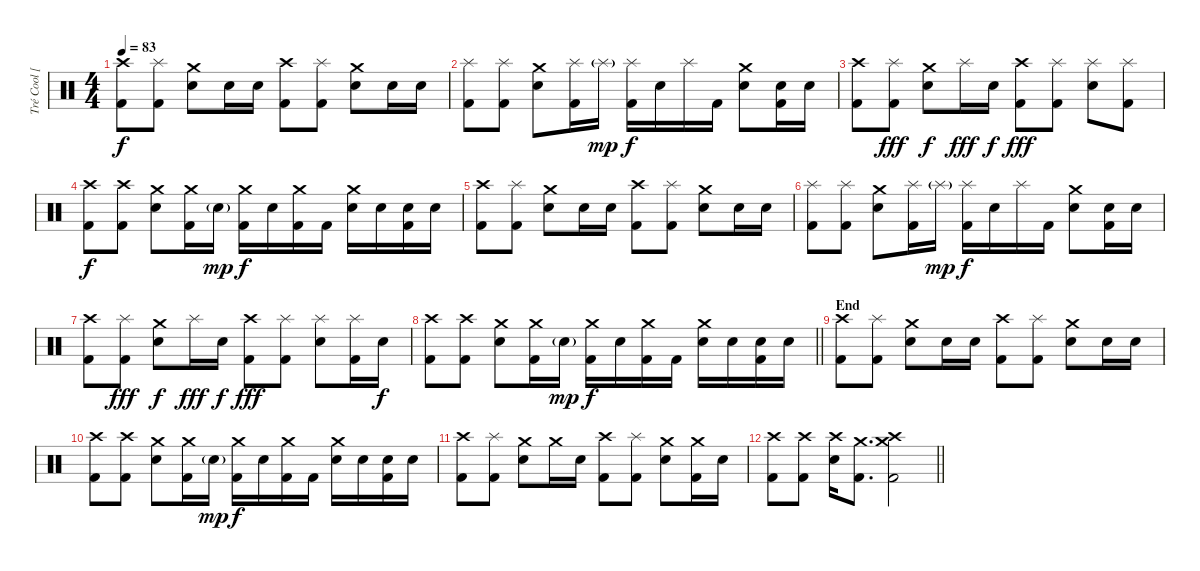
\track ("Tré Cool [Drums]" "Tré Cool [") {instrument percussion}
\staff {score}
\articulation defaults
\ts (4 4)
\tempo 83
\clef neutral
\ks c
("Crash high (hit)" "Kick (hit) 2").8{dy f} ("Splash (hit)" "Kick (hit) 2").8 ("Crash medium (hit)" "Electric Snare (hit)").8 "Electric Snare (hit)".16 "Electric Snare (hit)".16 ("Crash high (hit)" "Kick (hit) 2").8 ("Splash (hit)" "Kick (hit) 2").8 ("Crash medium (hit)" "Electric Snare (hit)").8 "Electric Snare (hit)".16 "Electric Snare (hit)".16 |
("Splash (hit)" "Kick (hit) 2").8 ("Splash (hit)" "Kick (hit) 2").8 ("Crash medium (hit)" "Electric Snare (hit)").8 ("Splash (hit)" "Kick (hit) 2").16 "Splash (hit)"{g}.16{dy mp} ("Splash (hit)" "Kick (hit) 2").16{dy f} "Electric Snare (hit)".16 "Splash (hit)".16 "Kick (hit) 2".16 ("Crash medium (hit)" "Electric Snare (hit)").8 ("Electric Snare (hit)" "Kick (hit) 2").16 "Electric Snare (hit)".16 |
("Crash high (hit)" "Kick (hit) 2").8 ("Splash (hit)" "Kick (hit) 2").8{dy fff} ("Crash medium (hit)" "Electric Snare (hit)").8{dy f} "Splash (hit)".16{dy fff} "Electric Snare (hit)".16{dy f} ("Crash high (hit)" "Kick (hit) 2").8{dy fff} ("Splash (hit)" "Kick (hit) 2").8 ("Splash (hit)" "Electric Snare (hit)").8 ("Splash (hit)" "Kick (hit) 2").8 |
("Crash high (hit)" "Kick (hit) 2").8{dy f} ("Crash high (hit)" "Kick (hit) 2").8 ("Crash medium (hit)" "Electric Snare (hit)").8 ("Crash medium (hit)" "Kick (hit) 2").16 "Electric Snare (hit)"{g}.16{dy mp} ("Crash medium (hit)" "Kick (hit) 2").16{dy f} "Electric Snare (hit)".16 ("Crash medium (hit)" "Kick (hit) 2").16 "Kick (hit) 2".16 ("Crash medium (hit)" "Electric Snare (hit)").16 "Electric Snare (hit)".16 ("Electric Snare (hit)" "Kick (hit) 2").16 "Electric Snare (hit)".16 |
("Crash high (hit)" "Kick (hit) 2").8 ("Splash (hit)" "Kick (hit) 2").8 ("Crash medium (hit)" "Electric Snare (hit)").8 "Electric Snare (hit)".16 "Electric Snare (hit)".16 ("Crash high (hit)" "Kick (hit) 2").8 ("Splash (hit)" "Kick (hit) 2").8 ("Crash medium (hit)" "Electric Snare (hit)").8 "Electric Snare (hit)".16 "Electric Snare (hit)".16 |
("Splash (hit)" "Kick (hit) 2").8 ("Splash (hit)" "Kick (hit) 2").8 ("Crash medium (hit)" "Electric Snare (hit)").8 ("Splash (hit)" "Kick (hit) 2").16 "Splash (hit)"{g}.16{dy mp} ("Splash (hit)" "Kick (hit) 2").16{dy f} "Electric Snare (hit)".16 "Splash (hit)".16 "Kick (hit) 2".16 ("Crash medium (hit)" "Electric Snare (hit)").8 ("Electric Snare (hit)" "Kick (hit) 2").16 "Electric Snare (hit)".16 |
("Crash high (hit)" "Kick (hit) 2").8 ("Splash (hit)" "Kick (hit) 2").8{dy fff} ("Crash medium (hit)" "Electric Snare (hit)").8{dy f} "Splash (hit)".16{dy fff} "Electric Snare (hit)".16{dy f} ("Crash high (hit)" "Kick (hit) 2").8{dy fff} ("Splash (hit)" "Kick (hit) 2").8 ("Splash (hit)" "Electric Snare (hit)").8 ("Splash (hit)" "Kick (hit) 2").16 "Electric Snare (hit)".16{dy f} |
\barLineRight lightlight
("Crash high (hit)" "Kick (hit) 2").8 ("Crash high (hit)" "Kick (hit) 2").8 ("Crash medium (hit)" "Electric Snare (hit)").8 ("Crash medium (hit)" "Kick (hit) 2").16 "Electric Snare (hit)"{g}.16{dy mp} ("Crash medium (hit)" "Kick (hit) 2").16{dy f} "Electric Snare (hit)".16 ("Crash medium (hit)" "Kick (hit) 2").16 "Kick (hit) 2".16 ("Crash medium (hit)" "Electric Snare (hit)").16 "Electric Snare (hit)".16 ("Electric Snare (hit)" "Kick (hit) 2").16 "Electric Snare (hit)".16 |
\section ("" "End")
("Crash high (hit)" "Kick (hit) 2").8 ("Splash (hit)" "Kick (hit) 2").8 ("Crash medium (hit)" "Electric Snare (hit)").8 "Electric Snare (hit)".16 "Electric Snare (hit)".16 ("Crash high (hit)" "Kick (hit) 2").8 ("Splash (hit)" "Kick (hit) 2").8 ("Crash medium (hit)" "Electric Snare (hit)").8 "Electric Snare (hit)".16 "Electric Snare (hit)".16 |
("Crash high (hit)" "Kick (hit) 2").8 ("Crash high (hit)" "Kick (hit) 2").8 ("Crash medium (hit)" "Electric Snare (hit)").8 ("Crash medium (hit)" "Kick (hit) 2").16 "Electric Snare (hit)"{g}.16{dy mp} ("Crash medium (hit)" "Kick (hit) 2").16{dy f} "Electric Snare (hit)".16 ("Crash medium (hit)" "Kick (hit) 2").16 "Kick (hit) 2".16 ("Crash medium (hit)" "Electric Snare (hit)").16 "Electric Snare (hit)".16 ("Electric Snare (hit)" "Kick (hit) 2").16 "Electric Snare (hit)".16 |
("Crash high (hit)" "Kick (hit) 2").8 ("Splash (hit)" "Kick (hit) 2").8 ("Crash medium (hit)" "Electric Snare (hit)").8 "Crash medium (hit)".16 "Electric Snare (hit)".16 ("Crash high (hit)" "Kick (hit) 2").8 ("Splash (hit)" "Kick (hit) 2").8 ("Crash medium (hit)" "Electric Snare (hit)").8 ("Crash medium (hit)" "Kick (hit) 2").16 "Electric Snare (hit)".16 |
\barLineRight lightlight
("Crash high (hit)" "Kick (hit) 2").8 ("Crash high (hit)" "Kick (hit) 2").8 ("Crash high (hit)" "Electric Snare (hit)").16 ("Crash medium (hit)" "Kick (hit) 2").8{d} ("Crash high (hit)" "Crash medium (hit)" "Kick (hit) 2").2
